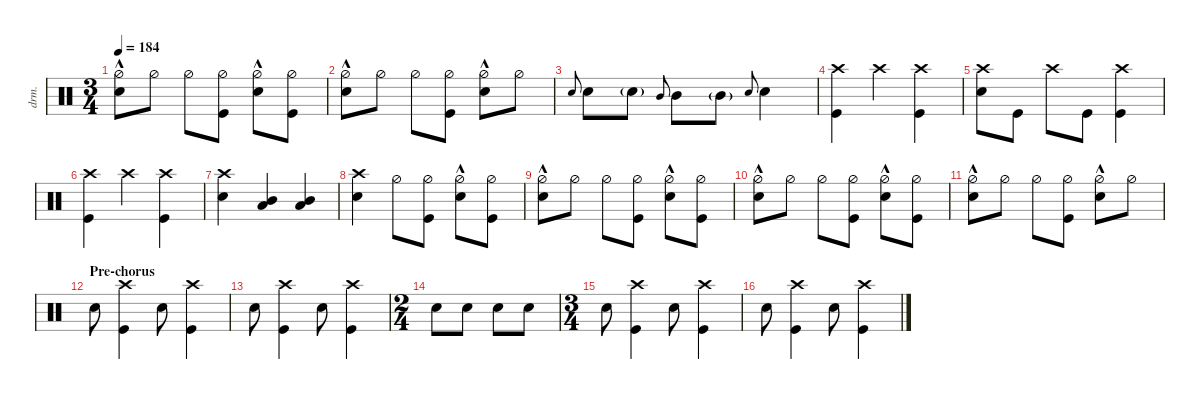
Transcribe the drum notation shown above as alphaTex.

\defaultSystemsLayout 4
\hideDynamics
\bracketExtendMode nobrackets
\otherSystemsTrackNameOrientation horizontal
\track ("Drums" "drm.") {defaultSystemsLayout 4 multiBarRest instrument percussion}
\staff {score}
\articulation defaults
\ts (3 4)
\tempo 184
\clef neutral
\ks c
("Hi-Hat (half)"{hac} "Snare (hit) 2").8{dy f} "Hi-Hat (half)".8 "Hi-Hat (half)".8 ("Hi-Hat (half)" "Kick (hit)").8 ("Hi-Hat (half)"{hac} "Snare (hit) 2").8 ("Hi-Hat (half)" "Kick (hit)").8 |
("Hi-Hat (half)"{hac} "Snare (hit) 2").8 "Hi-Hat (half)".8 "Hi-Hat (half)".8 ("Hi-Hat (half)" "Kick (hit)").8 ("Hi-Hat (half)"{hac} "Snare (hit) 2").8 "Hi-Hat (half)".8 |
"Snare (hit) 2".8{gr onbeat} "Snare (hit) 2".8 "Snare (hit) 2"{g}.8{dy mf} "Mid Tom (hit)".8{gr onbeat dy ff} "Mid Tom (hit)".8 "Mid Tom (hit)"{g}.8{dy f} "Snare (hit) 2".8{gr onbeat} "Snare (hit) 2".4 |
("Crash high (hit)" "Kick (hit)").4 "Crash high (hit)".4 ("Kick (hit)" "Crash high (hit)").4 |
("Crash high (hit)" "Snare (hit) 2").8 "Kick (hit)".8 "Crash high (hit)".8 "Kick (hit)".8 ("Kick (hit)" "Crash high (hit)").4 |
("Crash high (hit)" "Kick (hit)").4 "Crash high (hit)".4 ("Kick (hit)" "Crash high (hit)").4 |
("Crash high (hit)" "Snare (hit) 2").4 ("Low Tom (hit)" "Mid Tom (hit)").4{dy ff} ("Low Tom (hit)" "Mid Tom (hit)").4 |
("Snare (hit) 2" "Crash high (hit)").4{dy f} "Hi-Hat (half)".8 ("Hi-Hat (half)" "Kick (hit)").8 ("Hi-Hat (half)"{hac} "Snare (hit) 2").8 ("Hi-Hat (half)" "Kick (hit)").8 |
("Hi-Hat (half)"{hac} "Snare (hit) 2").8 "Hi-Hat (half)".8 "Hi-Hat (half)".8 ("Hi-Hat (half)" "Kick (hit)").8 ("Hi-Hat (half)"{hac} "Snare (hit) 2").8 ("Hi-Hat (half)" "Kick (hit)").8 |
("Hi-Hat (half)"{hac} "Snare (hit) 2").8 "Hi-Hat (half)".8 "Hi-Hat (half)".8 ("Hi-Hat (half)" "Kick (hit)").8 ("Hi-Hat (half)"{hac} "Snare (hit) 2").8 ("Hi-Hat (half)" "Kick (hit)").8 |
("Hi-Hat (half)"{hac} "Snare (hit) 2").8 "Hi-Hat (half)".8 "Hi-Hat (half)".8 ("Hi-Hat (half)" "Kick (hit)").8 ("Hi-Hat (half)"{hac} "Snare (hit) 2").8 "Hi-Hat (half)".8 |
\section ("" "Pre-chorus")
"Snare (hit) 2".8 ("Crash high (hit)" "Kick (hit)").4 "Snare (hit) 2".8 ("Crash high (hit)" "Kick (hit)").4 |
"Snare (hit) 2".8 ("Crash high (hit)" "Kick (hit)").4 "Snare (hit) 2".8 ("Crash high (hit)" "Kick (hit)").4 |
\ts (2 4)
\beaming (8 2 2 2 2)
"Snare (hit) 2".8 "Snare (hit) 2".8 "Snare (hit) 2".8 "Snare (hit) 2".8 |
\ts (3 4)
\beaming (8 2 2 2 2)
"Snare (hit) 2".8 ("Crash high (hit)" "Kick (hit)").4 "Snare (hit) 2".8 ("Crash high (hit)" "Kick (hit)").4 |
"Snare (hit) 2".8 ("Crash high (hit)" "Kick (hit)").4 "Snare (hit) 2".8 ("Crash high (hit)" "Kick (hit)").4
